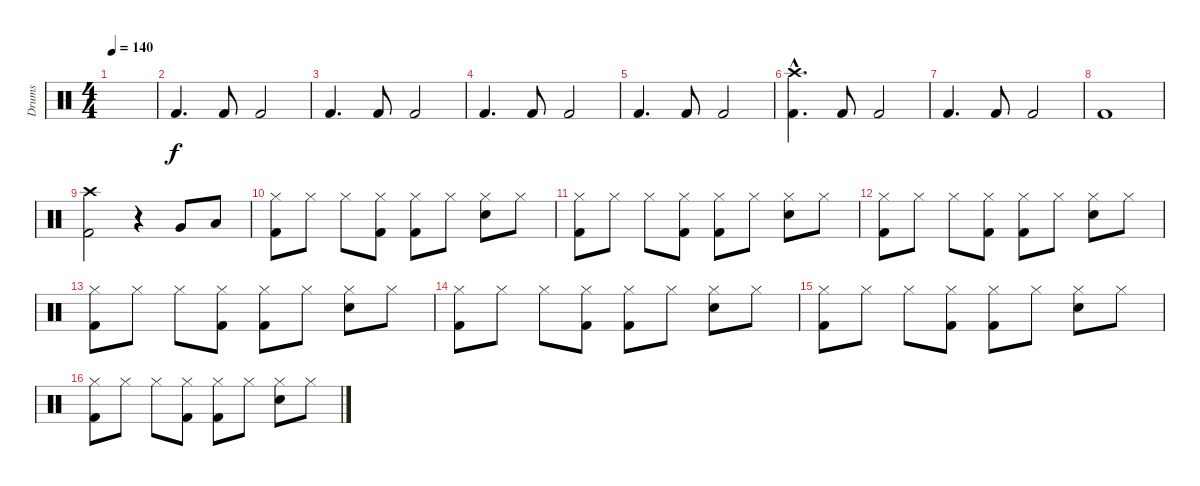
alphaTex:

\track ("Drums" "Drums") {instrument percussion}
\staff {score}
\articulation defaults
\ts (4 4)
\tempo 140
\clef neutral
\ks c
|
"Kick (hit) 2".4{d} "Kick (hit) 2".8 "Kick (hit) 2".2 |
"Kick (hit) 2".4{d} "Kick (hit) 2".8 "Kick (hit) 2".2 |
"Kick (hit) 2".4{d} "Kick (hit) 2".8 "Kick (hit) 2".2 |
"Kick (hit) 2".4{d} "Kick (hit) 2".8 "Kick (hit) 2".2 |
("Crash high (hit)"{hac} "Kick (hit) 2").4{d} "Kick (hit) 2".8 "Kick (hit) 2".2 |
"Kick (hit) 2".4{d} "Kick (hit) 2".8 "Kick (hit) 2".2 |
"Kick (hit) 2".1 |
("Crash high (hit)" "Kick (hit) 2").2 r.4 "Very Low Tom (hit)".8 "Low Tom (hit)".8 |
("Hi-Hat (closed)" "Kick (hit) 2").8 "Hi-Hat (closed)".8 "Hi-Hat (closed)".8 ("Hi-Hat (closed)" "Kick (hit) 2").8 ("Hi-Hat (closed)" "Kick (hit) 2").8 "Hi-Hat (closed)".8 ("Hi-Hat (closed)" "Electric Snare (hit)").8 "Hi-Hat (closed)".8 |
("Hi-Hat (closed)" "Kick (hit) 2").8 "Hi-Hat (closed)".8 "Hi-Hat (closed)".8 ("Hi-Hat (closed)" "Kick (hit) 2").8 ("Hi-Hat (closed)" "Kick (hit) 2").8 "Hi-Hat (closed)".8 ("Hi-Hat (closed)" "Electric Snare (hit)").8 "Hi-Hat (closed)".8 |
("Hi-Hat (closed)" "Kick (hit) 2").8 "Hi-Hat (closed)".8 "Hi-Hat (closed)".8 ("Hi-Hat (closed)" "Kick (hit) 2").8 ("Hi-Hat (closed)" "Kick (hit) 2").8 "Hi-Hat (closed)".8 ("Hi-Hat (closed)" "Electric Snare (hit)").8 "Hi-Hat (closed)".8 |
("Hi-Hat (closed)" "Kick (hit) 2").8 "Hi-Hat (closed)".8 "Hi-Hat (closed)".8 ("Hi-Hat (closed)" "Kick (hit) 2").8 ("Hi-Hat (closed)" "Kick (hit) 2").8 "Hi-Hat (closed)".8 ("Hi-Hat (closed)" "Electric Snare (hit)").8 "Hi-Hat (closed)".8 |
("Hi-Hat (closed)" "Kick (hit) 2").8 "Hi-Hat (closed)".8 "Hi-Hat (closed)".8 ("Hi-Hat (closed)" "Kick (hit) 2").8 ("Hi-Hat (closed)" "Kick (hit) 2").8 "Hi-Hat (closed)".8 ("Hi-Hat (closed)" "Electric Snare (hit)").8 "Hi-Hat (closed)".8 |
("Hi-Hat (closed)" "Kick (hit) 2").8 "Hi-Hat (closed)".8 "Hi-Hat (closed)".8 ("Hi-Hat (closed)" "Kick (hit) 2").8 ("Hi-Hat (closed)" "Kick (hit) 2").8 "Hi-Hat (closed)".8 ("Hi-Hat (closed)" "Electric Snare (hit)").8 "Hi-Hat (closed)".8 |
("Hi-Hat (closed)" "Kick (hit) 2").8 "Hi-Hat (closed)".8 "Hi-Hat (closed)".8 ("Hi-Hat (closed)" "Kick (hit) 2").8 ("Hi-Hat (closed)" "Kick (hit) 2").8 "Hi-Hat (closed)".8 ("Hi-Hat (closed)" "Electric Snare (hit)").8 "Hi-Hat (closed)".8
